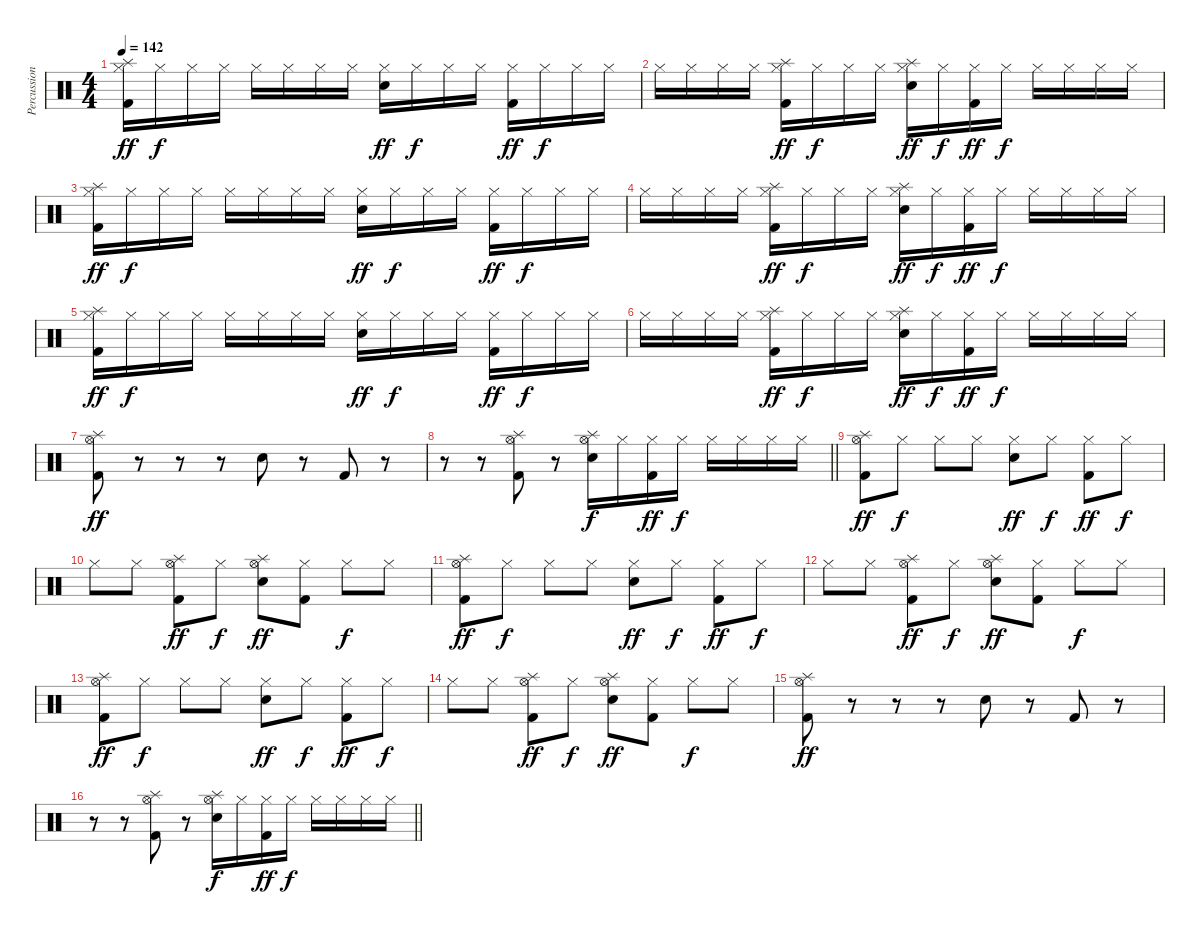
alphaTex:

\track ("Percussion" "Percussion") {instrument percussion}
\staff {score}
\articulation defaults
\ts (4 4)
\tempo 142
\clef neutral
\ks c
("Hi-Hat (closed)" "Splash (hit)" "Kick (hit) 2").16{dy ff} "Hi-Hat (closed)".16{dy f} "Hi-Hat (closed)".16 "Hi-Hat (closed)".16 "Hi-Hat (closed)".16 "Hi-Hat (closed)".16 "Hi-Hat (closed)".16 "Hi-Hat (closed)".16 ("Hi-Hat (closed)" "Snare (hit) 2").16{dy ff} "Hi-Hat (closed)".16{dy f} "Hi-Hat (closed)".16 "Hi-Hat (closed)".16 ("Hi-Hat (closed)" "Kick (hit) 2").16{dy ff} "Hi-Hat (closed)".16{dy f} "Hi-Hat (closed)".16 "Hi-Hat (closed)".16 |
"Hi-Hat (closed)".16 "Hi-Hat (closed)".16 "Hi-Hat (closed)".16 "Hi-Hat (closed)".16 ("Hi-Hat (closed)" "Splash (hit)" "Kick (hit) 2").16{dy ff} "Hi-Hat (closed)".16{dy f} "Hi-Hat (closed)".16 "Hi-Hat (closed)".16 ("Hi-Hat (closed)" "Splash (hit)" "Snare (hit) 2").16{dy ff} "Hi-Hat (closed)".16{dy f} ("Hi-Hat (closed)" "Kick (hit) 2").16{dy ff} "Hi-Hat (closed)".16{dy f} "Hi-Hat (closed)".16 "Hi-Hat (closed)".16 "Hi-Hat (closed)".16 "Hi-Hat (closed)".16 |
("Hi-Hat (closed)" "Splash (hit)" "Kick (hit) 2").16{dy ff} "Hi-Hat (closed)".16{dy f} "Hi-Hat (closed)".16 "Hi-Hat (closed)".16 "Hi-Hat (closed)".16 "Hi-Hat (closed)".16 "Hi-Hat (closed)".16 "Hi-Hat (closed)".16 ("Hi-Hat (closed)" "Snare (hit) 2").16{dy ff} "Hi-Hat (closed)".16{dy f} "Hi-Hat (closed)".16 "Hi-Hat (closed)".16 ("Hi-Hat (closed)" "Kick (hit) 2").16{dy ff} "Hi-Hat (closed)".16{dy f} "Hi-Hat (closed)".16 "Hi-Hat (closed)".16 |
"Hi-Hat (closed)".16 "Hi-Hat (closed)".16 "Hi-Hat (closed)".16 "Hi-Hat (closed)".16 ("Hi-Hat (closed)" "Splash (hit)" "Kick (hit) 2").16{dy ff} "Hi-Hat (closed)".16{dy f} "Hi-Hat (closed)".16 "Hi-Hat (closed)".16 ("Hi-Hat (closed)" "Splash (hit)" "Snare (hit) 2").16{dy ff} "Hi-Hat (closed)".16{dy f} ("Hi-Hat (closed)" "Kick (hit) 2").16{dy ff} "Hi-Hat (closed)".16{dy f} "Hi-Hat (closed)".16 "Hi-Hat (closed)".16 "Hi-Hat (closed)".16 "Hi-Hat (closed)".16 |
("Hi-Hat (closed)" "Splash (hit)" "Kick (hit) 2").16{dy ff} "Hi-Hat (closed)".16{dy f} "Hi-Hat (closed)".16 "Hi-Hat (closed)".16 "Hi-Hat (closed)".16 "Hi-Hat (closed)".16 "Hi-Hat (closed)".16 "Hi-Hat (closed)".16 ("Hi-Hat (closed)" "Snare (hit) 2").16{dy ff} "Hi-Hat (closed)".16{dy f} "Hi-Hat (closed)".16 "Hi-Hat (closed)".16 ("Hi-Hat (closed)" "Kick (hit) 2").16{dy ff} "Hi-Hat (closed)".16{dy f} "Hi-Hat (closed)".16 "Hi-Hat (closed)".16 |
"Hi-Hat (closed)".16 "Hi-Hat (closed)".16 "Hi-Hat (closed)".16 "Hi-Hat (closed)".16 ("Hi-Hat (closed)" "Splash (hit)" "Kick (hit) 2").16{dy ff} "Hi-Hat (closed)".16{dy f} "Hi-Hat (closed)".16 "Hi-Hat (closed)".16 ("Hi-Hat (closed)" "Splash (hit)" "Snare (hit) 2").16{dy ff} "Hi-Hat (closed)".16{dy f} ("Hi-Hat (closed)" "Kick (hit) 2").16{dy ff} "Hi-Hat (closed)".16{dy f} "Hi-Hat (closed)".16 "Hi-Hat (closed)".16 "Hi-Hat (closed)".16 "Hi-Hat (closed)".16 |
("Hi-Hat (open)" "Splash (hit)" "Kick (hit) 2").8{dy ff} r.8 r.8 r.8 "Snare (hit) 2".8 r.8 "Kick (hit) 2".8 r.8 |
\barLineRight lightlight
r.8 r.8 ("Hi-Hat (open)" "Splash (hit)" "Kick (hit) 2").8 r.8 ("Hi-Hat (open)" "Splash (hit)" "Snare (hit) 2").16{dy f} "Hi-Hat (closed)".16 ("Hi-Hat (closed)" "Kick (hit) 2").16{dy ff} "Hi-Hat (closed)".16{dy f} "Hi-Hat (closed)".16 "Hi-Hat (closed)".16 "Hi-Hat (closed)".16 "Hi-Hat (closed)".16 |
("Hi-Hat (open)" "Splash (hit)" "Kick (hit) 2").8{dy ff} "Hi-Hat (closed)".8{dy f} "Hi-Hat (closed)".8 "Hi-Hat (closed)".8 ("Hi-Hat (closed)" "Snare (hit) 2").8{dy ff} "Hi-Hat (closed)".8{dy f} ("Hi-Hat (closed)" "Kick (hit) 2").8{dy ff} "Hi-Hat (closed)".8{dy f} |
"Hi-Hat (closed)".8 "Hi-Hat (closed)".8 ("Hi-Hat (open)" "Splash (hit)" "Kick (hit) 2").8{dy ff} "Hi-Hat (closed)".8{dy f} ("Hi-Hat (open)" "Splash (hit)" "Snare (hit) 2").8{dy ff} ("Hi-Hat (closed)" "Kick (hit) 2").8 "Hi-Hat (closed)".8{dy f} "Hi-Hat (closed)".8 |
("Hi-Hat (open)" "Splash (hit)" "Kick (hit) 2").8{dy ff} "Hi-Hat (closed)".8{dy f} "Hi-Hat (closed)".8 "Hi-Hat (closed)".8 ("Hi-Hat (closed)" "Snare (hit) 2").8{dy ff} "Hi-Hat (closed)".8{dy f} ("Hi-Hat (closed)" "Kick (hit) 2").8{dy ff} "Hi-Hat (closed)".8{dy f} |
"Hi-Hat (closed)".8 "Hi-Hat (closed)".8 ("Hi-Hat (open)" "Splash (hit)" "Kick (hit) 2").8{dy ff} "Hi-Hat (closed)".8{dy f} ("Hi-Hat (open)" "Splash (hit)" "Snare (hit) 2").8{dy ff} ("Hi-Hat (closed)" "Kick (hit) 2").8 "Hi-Hat (closed)".8{dy f} "Hi-Hat (closed)".8 |
("Hi-Hat (open)" "Splash (hit)" "Kick (hit) 2").8{dy ff} "Hi-Hat (closed)".8{dy f} "Hi-Hat (closed)".8 "Hi-Hat (closed)".8 ("Hi-Hat (closed)" "Snare (hit) 2").8{dy ff} "Hi-Hat (closed)".8{dy f} ("Hi-Hat (closed)" "Kick (hit) 2").8{dy ff} "Hi-Hat (closed)".8{dy f} |
"Hi-Hat (closed)".8 "Hi-Hat (closed)".8 ("Hi-Hat (open)" "Splash (hit)" "Kick (hit) 2").8{dy ff} "Hi-Hat (closed)".8{dy f} ("Hi-Hat (open)" "Splash (hit)" "Snare (hit) 2").8{dy ff} ("Hi-Hat (closed)" "Kick (hit) 2").8 "Hi-Hat (closed)".8{dy f} "Hi-Hat (closed)".8 |
("Hi-Hat (open)" "Splash (hit)" "Kick (hit) 2").8{dy ff} r.8 r.8 r.8 "Snare (hit) 2".8 r.8 "Kick (hit) 2".8 r.8 |
\barLineRight lightlight
r.8 r.8 ("Hi-Hat (open)" "Splash (hit)" "Kick (hit) 2").8 r.8 ("Hi-Hat (open)" "Splash (hit)" "Snare (hit) 2").16{dy f} "Hi-Hat (closed)".16 ("Hi-Hat (closed)" "Kick (hit) 2").16{dy ff} "Hi-Hat (closed)".16{dy f} "Hi-Hat (closed)".16 "Hi-Hat (closed)".16 "Hi-Hat (closed)".16 "Hi-Hat (closed)".16
